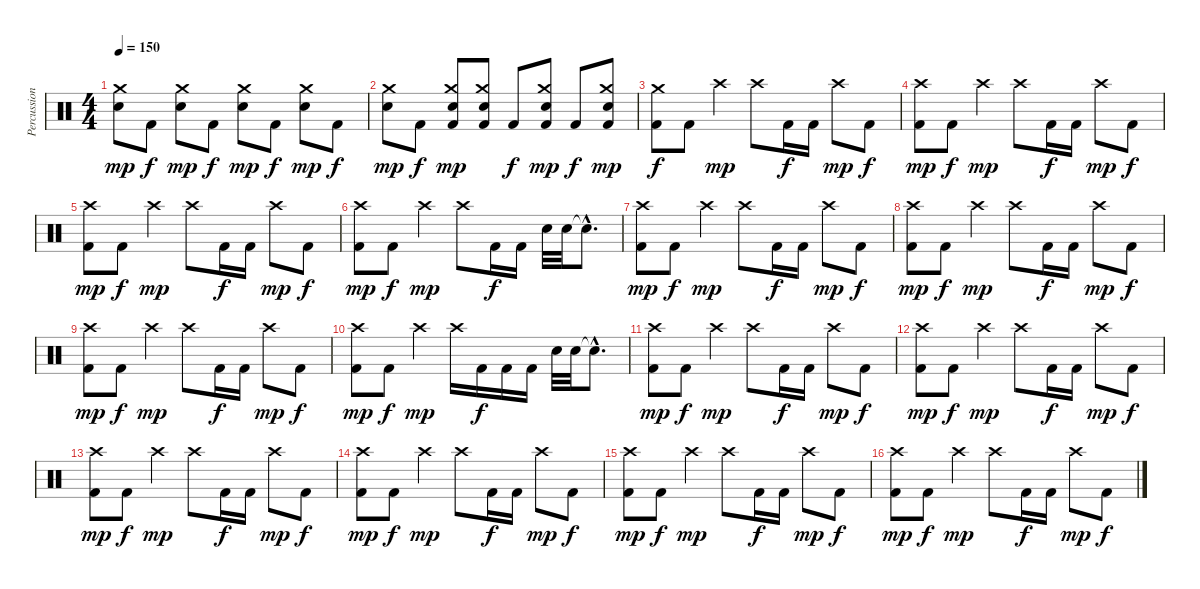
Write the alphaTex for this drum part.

\track ("Percussions" "Percussion") {instrument percussion}
\staff {score}
\articulation defaults
\ts (4 4)
\tempo 150
\clef neutral
\ks c
("Electric Snare (hit)" "Crash medium (hit)").8{dy mp} "Kick (hit) 2".8{dy f} ("Electric Snare (hit)" "Crash medium (hit)").8{dy mp} "Kick (hit) 2".8{dy f} ("Electric Snare (hit)" "Crash medium (hit)").8{dy mp} "Kick (hit) 2".8{dy f} ("Electric Snare (hit)" "Crash medium (hit)").8{dy mp} "Kick (hit) 2".8{dy f} |
("Electric Snare (hit)" "Crash medium (hit)").8{dy mp} "Kick (hit) 2".8{dy f} ("Kick (hit) 2" "Electric Snare (hit)" "Crash medium (hit)").8{dy mp} ("Kick (hit) 2" "Electric Snare (hit)" "Crash medium (hit)").8 "Kick (hit) 2".8{dy f} ("Kick (hit) 2" "Electric Snare (hit)" "Crash medium (hit)").8{dy mp} "Kick (hit) 2".8{dy f} ("Kick (hit) 2" "Electric Snare (hit)" "Crash medium (hit)").8{dy mp} |
("Kick (hit) 2" "Crash medium (hit)").8{dy f} "Kick (hit) 2".8 "Crash high (hit)".4{dy mp} "Crash high (hit)".8 "Kick (hit) 2".16{dy f} "Kick (hit) 2".16 "Crash high (hit)".8{dy mp} "Kick (hit) 2".8{dy f} |
("Kick (hit) 2" "Crash high (hit)").8{dy mp} "Kick (hit) 2".8{dy f} "Crash high (hit)".4{dy mp} "Crash high (hit)".8 "Kick (hit) 2".16{dy f} "Kick (hit) 2".16 "Crash high (hit)".8{dy mp} "Kick (hit) 2".8{dy f} |
("Kick (hit) 2" "Crash high (hit)").8{dy mp} "Kick (hit) 2".8{dy f} "Crash high (hit)".4{dy mp} "Crash high (hit)".8 "Kick (hit) 2".16{dy f} "Kick (hit) 2".16 "Crash high (hit)".8{dy mp} "Kick (hit) 2".8{dy f} |
("Kick (hit) 2" "Crash high (hit)").8{dy mp} "Kick (hit) 2".8{dy f} "Crash high (hit)".4{dy mp} "Crash high (hit)".8 "Kick (hit) 2".16{dy f} "Kick (hit) 2".16 "Electric Snare (hit)".32 "Electric Snare (hit)".32 "Snare (hit)"{hac t}.8{d} |
("Kick (hit) 2" "Crash high (hit)").8{dy mp} "Kick (hit) 2".8{dy f} "Crash high (hit)".4{dy mp} "Crash high (hit)".8 "Kick (hit) 2".16{dy f} "Kick (hit) 2".16 "Crash high (hit)".8{dy mp} "Kick (hit) 2".8{dy f} |
("Kick (hit) 2" "Crash high (hit)").8{dy mp} "Kick (hit) 2".8{dy f} "Crash high (hit)".4{dy mp} "Crash high (hit)".8 "Kick (hit) 2".16{dy f} "Kick (hit) 2".16 "Crash high (hit)".8{dy mp} "Kick (hit) 2".8{dy f} |
("Kick (hit) 2" "Crash high (hit)").8{dy mp} "Kick (hit) 2".8{dy f} "Crash high (hit)".4{dy mp} "Crash high (hit)".8 "Kick (hit) 2".16{dy f} "Kick (hit) 2".16 "Crash high (hit)".8{dy mp} "Kick (hit) 2".8{dy f} |
("Kick (hit) 2" "Crash high (hit)").8{dy mp} "Kick (hit) 2".8{dy f} "Crash high (hit)".4{dy mp} "Crash high (hit)".16 "Kick (hit) 2".16{dy f} "Kick (hit) 2".16 "Kick (hit) 2".16 "Electric Snare (hit)".32 "Electric Snare (hit)".32 "Snare (hit)"{hac t}.8{d} |
("Kick (hit) 2" "Crash high (hit)").8{dy mp} "Kick (hit) 2".8{dy f} "Crash high (hit)".4{dy mp} "Crash high (hit)".8 "Kick (hit) 2".16{dy f} "Kick (hit) 2".16 "Crash high (hit)".8{dy mp} "Kick (hit) 2".8{dy f} |
("Kick (hit) 2" "Crash high (hit)").8{dy mp} "Kick (hit) 2".8{dy f} "Crash high (hit)".4{dy mp} "Crash high (hit)".8 "Kick (hit) 2".16{dy f} "Kick (hit) 2".16 "Crash high (hit)".8{dy mp} "Kick (hit) 2".8{dy f} |
("Kick (hit) 2" "Crash high (hit)").8{dy mp} "Kick (hit) 2".8{dy f} "Crash high (hit)".4{dy mp} "Crash high (hit)".8 "Kick (hit) 2".16{dy f} "Kick (hit) 2".16 "Crash high (hit)".8{dy mp} "Kick (hit) 2".8{dy f} |
("Kick (hit) 2" "Crash high (hit)").8{dy mp} "Kick (hit) 2".8{dy f} "Crash high (hit)".4{dy mp} "Crash high (hit)".8 "Kick (hit) 2".16{dy f} "Kick (hit) 2".16 "Crash high (hit)".8{dy mp} "Kick (hit) 2".8{dy f} |
("Kick (hit) 2" "Crash high (hit)").8{dy mp} "Kick (hit) 2".8{dy f} "Crash high (hit)".4{dy mp} "Crash high (hit)".8 "Kick (hit) 2".16{dy f} "Kick (hit) 2".16 "Crash high (hit)".8{dy mp} "Kick (hit) 2".8{dy f} |
("Kick (hit) 2" "Crash high (hit)").8{dy mp} "Kick (hit) 2".8{dy f} "Crash high (hit)".4{dy mp} "Crash high (hit)".8 "Kick (hit) 2".16{dy f} "Kick (hit) 2".16 "Crash high (hit)".8{dy mp} "Kick (hit) 2".8{dy f}
